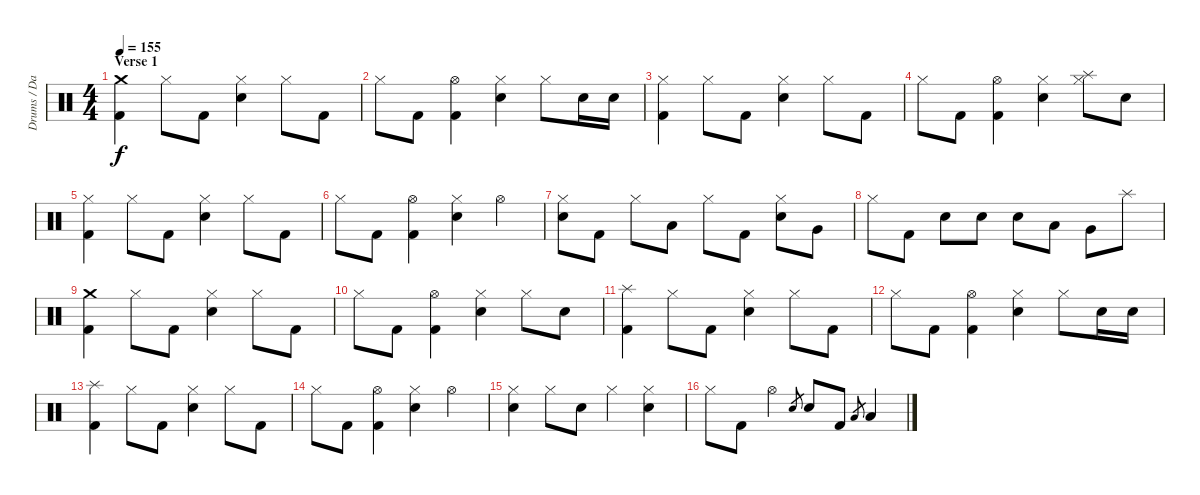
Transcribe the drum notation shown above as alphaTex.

\track ("Drums / David" "Drums / Da") {instrument percussion}
\staff {score}
\articulation defaults
\ts (4 4)
\section ("" "Verse 1")
\tempo 155
\clef neutral
\ks c
("Crash medium (hit)" "Kick (hit) 2").4{dy f} "Hi-Hat (closed)".8 "Kick (hit) 2".8 ("Hi-Hat (closed)" "Electric Snare (hit)").4 "Hi-Hat (closed)".8 "Kick (hit) 2".8 |
"Hi-Hat (closed)".8 "Kick (hit) 2".8 ("Hi-Hat (open)" "Kick (hit) 2").4 ("Hi-Hat (closed)" "Electric Snare (hit)").4 "Hi-Hat (closed)".8 "Electric Snare (hit)".16 "Electric Snare (hit)".16 |
("Hi-Hat (closed)" "Kick (hit) 2").4 "Hi-Hat (closed)".8 "Kick (hit) 2".8 ("Hi-Hat (closed)" "Electric Snare (hit)").4 "Hi-Hat (closed)".8 "Kick (hit) 2".8 |
"Hi-Hat (closed)".8 "Kick (hit) 2".8 ("Hi-Hat (open)" "Kick (hit) 2").4 ("Hi-Hat (closed)" "Electric Snare (hit)").4 ("Splash (hit)" "Hi-Hat (closed)").8 "Electric Snare (hit)".8 |
("Hi-Hat (closed)" "Kick (hit) 2").4 "Hi-Hat (closed)".8 "Kick (hit) 2".8 ("Hi-Hat (closed)" "Electric Snare (hit)").4 "Hi-Hat (closed)".8 "Kick (hit) 2".8 |
"Hi-Hat (closed)".8 "Kick (hit) 2".8 ("Hi-Hat (open)" "Kick (hit) 2").4 ("Hi-Hat (closed)" "Electric Snare (hit)").4 "Hi-Hat (open)".4 |
("Hi-Hat (closed)" "Electric Snare (hit)").8 "Kick (hit) 2".8 "Hi-Hat (closed)".8 "Low Tom (hit)".8 "Hi-Hat (closed)".8 "Kick (hit) 2".8 ("Hi-Hat (closed)" "Electric Snare (hit)").8 "Very Low Tom (hit)".8 |
"Hi-Hat (closed)".8 "Kick (hit) 2".8 "Electric Snare (hit)".8 "Electric Snare (hit)".8 "Electric Snare (hit)".8 "Low Tom (hit)".8 "Very Low Tom (hit)".8 "Splash (hit)".8 |
("Crash medium (hit)" "Kick (hit) 2").4 "Hi-Hat (closed)".8 "Kick (hit) 2".8 ("Hi-Hat (closed)" "Electric Snare (hit)").4 "Hi-Hat (closed)".8 "Kick (hit) 2".8 |
"Hi-Hat (closed)".8 "Kick (hit) 2".8 ("Hi-Hat (open)" "Kick (hit) 2").4 ("Hi-Hat (closed)" "Electric Snare (hit)").4 "Hi-Hat (closed)".8 "Electric Snare (hit)".8 |
("Splash (hit)" "Kick (hit) 2").4 "Hi-Hat (closed)".8 "Kick (hit) 2".8 ("Hi-Hat (closed)" "Electric Snare (hit)").4 "Hi-Hat (closed)".8 "Kick (hit) 2".8 |
"Hi-Hat (closed)".8 "Kick (hit) 2".8 ("Hi-Hat (open)" "Kick (hit) 2").4 ("Hi-Hat (closed)" "Electric Snare (hit)").4 "Hi-Hat (closed)".8 "Electric Snare (hit)".16 "Electric Snare (hit)".16 |
("Splash (hit)" "Kick (hit) 2").4 "Hi-Hat (closed)".8 "Kick (hit) 2".8 ("Hi-Hat (closed)" "Electric Snare (hit)").4 "Hi-Hat (closed)".8 "Kick (hit) 2".8 |
"Hi-Hat (closed)".8 "Kick (hit) 2".8 ("Hi-Hat (open)" "Kick (hit) 2").4 ("Hi-Hat (closed)" "Electric Snare (hit)").4 "Hi-Hat (open)".4 |
("Hi-Hat (closed)" "Electric Snare (hit)").4 "Hi-Hat (closed)".8 "Electric Snare (hit)".8 "Hi-Hat (closed)".4 ("Hi-Hat (closed)" "Electric Snare (hit)").4 |
"Hi-Hat (closed)".8 "Kick (hit) 2".8 "Hi-Hat (open)".4 "Electric Snare (hit)".8{gr} "Electric Snare (hit)".8 "Kick (hit) 2".8 "Low Floor Tom (hit)".8{gr} "Low Floor Tom (hit)".4
